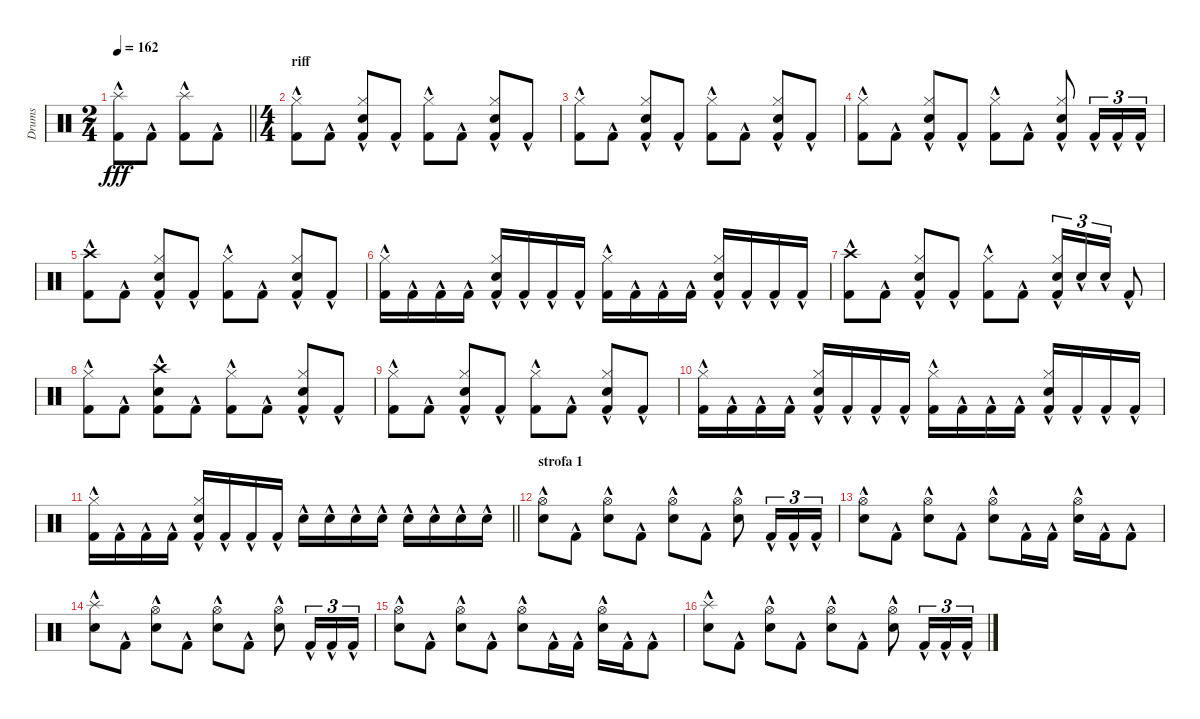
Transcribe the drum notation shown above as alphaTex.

\track ("Drums" "Drums") {instrument percussion}
\staff {score}
\articulation defaults
\ts (2 4)
\tempo 162
\clef neutral
\barLineRight lightlight
\ks c
("Kick (hit) 2"{hac} "Splash (hit)"{hac}).8{dy fff} "Kick (hit) 2"{hac}.8 ("Kick (hit) 2"{hac} "Splash (hit)"{hac}).8 "Kick (hit) 2"{hac}.8 |
\ts (4 4)
\section ("" "riff")
("Hi-Hat (closed)"{hac} "Kick (hit) 2"{hac}).8 "Kick (hit) 2"{hac}.8 ("Hi-Hat (closed)"{hac} "Kick (hit) 2"{hac} "Electric Snare (hit)"{hac}).8 "Kick (hit) 2"{hac}.8 ("Hi-Hat (closed)"{hac} "Kick (hit) 2"{hac}).8 "Kick (hit) 2"{hac}.8 ("Hi-Hat (closed)"{hac} "Kick (hit) 2"{hac} "Electric Snare (hit)"{hac}).8 "Kick (hit) 2"{hac}.8 |
("Hi-Hat (closed)"{hac} "Kick (hit) 2"{hac}).8 "Kick (hit) 2"{hac}.8 ("Hi-Hat (closed)"{hac} "Kick (hit) 2"{hac} "Electric Snare (hit)"{hac}).8 "Kick (hit) 2"{hac}.8 ("Hi-Hat (closed)"{hac} "Kick (hit) 2"{hac}).8 "Kick (hit) 2"{hac}.8 ("Hi-Hat (closed)"{hac} "Kick (hit) 2"{hac} "Electric Snare (hit)"{hac}).8 "Kick (hit) 2"{hac}.8 |
("Hi-Hat (closed)"{hac} "Kick (hit) 2"{hac}).8 "Kick (hit) 2"{hac}.8 ("Hi-Hat (closed)"{hac} "Kick (hit) 2"{hac} "Electric Snare (hit)"{hac}).8 "Kick (hit) 2"{hac}.8 ("Hi-Hat (closed)"{hac} "Kick (hit) 2"{hac}).8 "Kick (hit) 2"{hac}.8 ("Hi-Hat (closed)"{hac} "Kick (hit) 2"{hac} "Electric Snare (hit)"{hac}).8 "Kick (hit) 2"{hac}.16{tu (3 2)} "Kick (hit) 2"{hac}.16{tu (3 2)} "Kick (hit) 2"{hac}.16{tu (3 2)} |
("Kick (hit) 2"{hac} "Crash high (hit)"{hac}).8 "Kick (hit) 2"{hac}.8 ("Hi-Hat (closed)"{hac} "Kick (hit) 2"{hac} "Electric Snare (hit)"{hac}).8 "Kick (hit) 2"{hac}.8 ("Hi-Hat (closed)"{hac} "Kick (hit) 2"{hac}).8 "Kick (hit) 2"{hac}.8 ("Hi-Hat (closed)"{hac} "Kick (hit) 2"{hac} "Electric Snare (hit)"{hac}).8 "Kick (hit) 2"{hac}.8 |
("Hi-Hat (closed)"{hac} "Kick (hit) 2"{hac}).16 "Kick (hit) 2"{hac}.16 "Kick (hit) 2"{hac}.16 "Kick (hit) 2"{hac}.16 ("Hi-Hat (closed)"{hac} "Kick (hit) 2"{hac} "Electric Snare (hit)"{hac}).16 "Kick (hit) 2"{hac}.16 "Kick (hit) 2"{hac}.16 "Kick (hit) 2"{hac}.16 ("Hi-Hat (closed)"{hac} "Kick (hit) 2"{hac}).16 "Kick (hit) 2"{hac}.16 "Kick (hit) 2"{hac}.16 "Kick (hit) 2"{hac}.16 ("Hi-Hat (closed)"{hac} "Kick (hit) 2"{hac} "Electric Snare (hit)"{hac}).16 "Kick (hit) 2"{hac}.16 "Kick (hit) 2"{hac}.16 "Kick (hit) 2"{hac}.16 |
("Kick (hit) 2"{hac} "Crash high (hit)"{hac}).8 "Kick (hit) 2"{hac}.8 ("Hi-Hat (closed)"{hac} "Kick (hit) 2"{hac} "Electric Snare (hit)"{hac}).8 "Kick (hit) 2"{hac}.8 ("Hi-Hat (closed)"{hac} "Kick (hit) 2"{hac}).8 "Kick (hit) 2"{hac}.8 ("Hi-Hat (closed)"{hac} "Kick (hit) 2"{hac} "Electric Snare (hit)"{hac}).16{tu (3 2)} "Electric Snare (hit)"{hac}.16{tu (3 2)} "Electric Snare (hit)"{hac}.16{tu (3 2)} "Kick (hit) 2"{hac}.8 |
("Hi-Hat (closed)"{hac} "Kick (hit) 2"{hac}).8 "Kick (hit) 2"{hac}.8 ("Kick (hit) 2"{hac} "Electric Snare (hit)"{hac} "Crash high (hit)"{hac}).8 "Kick (hit) 2"{hac}.8 ("Hi-Hat (closed)"{hac} "Kick (hit) 2"{hac}).8 "Kick (hit) 2"{hac}.8 ("Hi-Hat (closed)"{hac} "Kick (hit) 2"{hac} "Electric Snare (hit)"{hac}).8 "Kick (hit) 2"{hac}.8 |
("Hi-Hat (closed)"{hac} "Kick (hit) 2"{hac}).8 "Kick (hit) 2"{hac}.8 ("Hi-Hat (closed)"{hac} "Kick (hit) 2"{hac} "Electric Snare (hit)"{hac}).8 "Kick (hit) 2"{hac}.8 ("Hi-Hat (closed)"{hac} "Kick (hit) 2"{hac}).8 "Kick (hit) 2"{hac}.8 ("Hi-Hat (closed)"{hac} "Kick (hit) 2"{hac} "Electric Snare (hit)"{hac}).8 "Kick (hit) 2"{hac}.8 |
("Hi-Hat (closed)"{hac} "Kick (hit) 2"{hac}).16 "Kick (hit) 2"{hac}.16 "Kick (hit) 2"{hac}.16 "Kick (hit) 2"{hac}.16 ("Hi-Hat (closed)"{hac} "Kick (hit) 2"{hac} "Electric Snare (hit)"{hac}).16 "Kick (hit) 2"{hac}.16 "Kick (hit) 2"{hac}.16 "Kick (hit) 2"{hac}.16 ("Hi-Hat (closed)"{hac} "Kick (hit) 2"{hac}).16 "Kick (hit) 2"{hac}.16 "Kick (hit) 2"{hac}.16 "Kick (hit) 2"{hac}.16 ("Hi-Hat (closed)"{hac} "Kick (hit) 2"{hac} "Electric Snare (hit)"{hac}).16 "Kick (hit) 2"{hac}.16 "Kick (hit) 2"{hac}.16 "Kick (hit) 2"{hac}.16 |
\barLineRight lightlight
("Hi-Hat (closed)"{hac} "Kick (hit) 2"{hac}).16 "Kick (hit) 2"{hac}.16 "Kick (hit) 2"{hac}.16 "Kick (hit) 2"{hac}.16 ("Hi-Hat (closed)"{hac} "Kick (hit) 2"{hac} "Electric Snare (hit)"{hac}).16 "Kick (hit) 2"{hac}.16 "Kick (hit) 2"{hac}.16 "Kick (hit) 2"{hac}.16 "Electric Snare (hit)"{hac}.16 "Electric Snare (hit)"{hac}.16 "Electric Snare (hit)"{hac}.16 "Electric Snare (hit)"{hac}.16 "Electric Snare (hit)"{hac}.16 "Electric Snare (hit)"{hac}.16 "Electric Snare (hit)"{hac}.16 "Electric Snare (hit)"{hac}.16 |
\section ("" "strofa 1")
("Hi-Hat (open)"{hac} "Electric Snare (hit)"{hac}).8 "Kick (hit) 2"{hac}.8 ("Hi-Hat (open)"{hac} "Electric Snare (hit)"{hac}).8 "Kick (hit) 2"{hac}.8 ("Hi-Hat (open)"{hac} "Electric Snare (hit)"{hac}).8 "Kick (hit) 2"{hac}.8 ("Hi-Hat (open)"{hac} "Electric Snare (hit)"{hac}).8 "Kick (hit) 2"{hac}.16{tu (3 2)} "Kick (hit) 2"{hac}.16{tu (3 2)} "Kick (hit) 2"{hac}.16{tu (3 2)} |
("Hi-Hat (open)"{hac} "Electric Snare (hit)"{hac}).8 "Kick (hit) 2"{hac}.8 ("Hi-Hat (open)"{hac} "Electric Snare (hit)"{hac}).8 "Kick (hit) 2"{hac}.8 ("Hi-Hat (open)"{hac} "Electric Snare (hit)"{hac}).8 "Kick (hit) 2"{hac}.16 "Kick (hit) 2"{hac}.16 ("Hi-Hat (open)"{hac} "Electric Snare (hit)"{hac}).16 "Kick (hit) 2"{hac}.16 "Kick (hit) 2"{hac}.8 |
("Electric Snare (hit)"{hac} "Splash (hit)"{hac}).8 "Kick (hit) 2"{hac}.8 ("Hi-Hat (open)"{hac} "Electric Snare (hit)"{hac}).8 "Kick (hit) 2"{hac}.8 ("Hi-Hat (open)"{hac} "Electric Snare (hit)"{hac}).8 "Kick (hit) 2"{hac}.8 ("Hi-Hat (open)"{hac} "Electric Snare (hit)"{hac}).8 "Kick (hit) 2"{hac}.16{tu (3 2)} "Kick (hit) 2"{hac}.16{tu (3 2)} "Kick (hit) 2"{hac}.16{tu (3 2)} |
("Hi-Hat (open)"{hac} "Electric Snare (hit)"{hac}).8 "Kick (hit) 2"{hac}.8 ("Hi-Hat (open)"{hac} "Electric Snare (hit)"{hac}).8 "Kick (hit) 2"{hac}.8 ("Hi-Hat (open)"{hac} "Electric Snare (hit)"{hac}).8 "Kick (hit) 2"{hac}.16 "Kick (hit) 2"{hac}.16 ("Hi-Hat (open)"{hac} "Electric Snare (hit)"{hac}).16 "Kick (hit) 2"{hac}.16 "Kick (hit) 2"{hac}.8 |
("Electric Snare (hit)"{hac} "Splash (hit)"{hac}).8 "Kick (hit) 2"{hac}.8 ("Hi-Hat (open)"{hac} "Electric Snare (hit)"{hac}).8 "Kick (hit) 2"{hac}.8 ("Hi-Hat (open)"{hac} "Electric Snare (hit)"{hac}).8 "Kick (hit) 2"{hac}.8 ("Hi-Hat (open)"{hac} "Electric Snare (hit)"{hac}).8 "Kick (hit) 2"{hac}.16{tu (3 2)} "Kick (hit) 2"{hac}.16{tu (3 2)} "Kick (hit) 2"{hac}.16{tu (3 2)}
